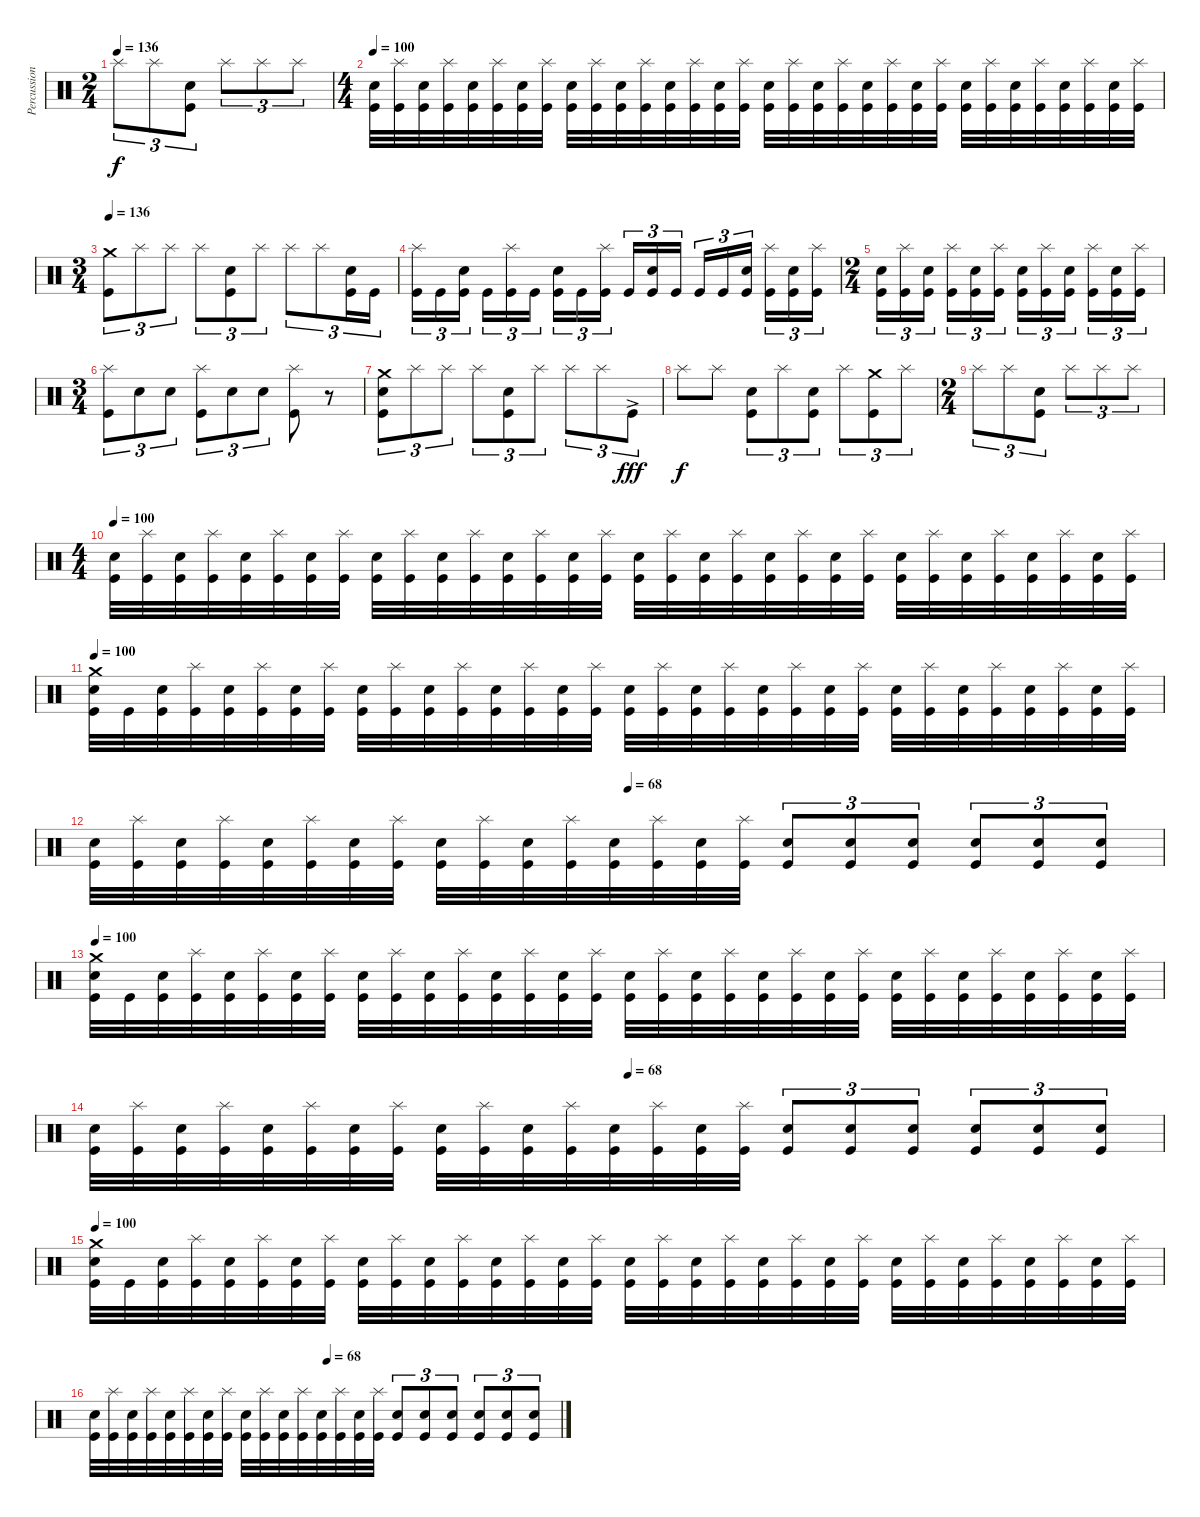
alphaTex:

\track ("Percussion" "Percussion") {instrument percussion}
\staff {score}
\articulation defaults
\ts (2 4)
\tempo 136
\clef neutral
\ks c "Splash (hit)".8{tu (3 2) dy f} "Splash (hit)".8{tu (3 2)}
("Electric Snare (hit)" "Kick (hit)").8{tu (3 2)} "Splash (hit)".8{tu (3 2)} "Splash (hit)".8{tu (3 2)} "Splash (hit)".8{tu (3 2)} |
\ts (4 4)
\tempo 100
("Electric Snare (hit)" "Kick (hit)").32 ("Splash (hit)" "Kick (hit)").32 ("Electric Snare (hit)" "Kick (hit)").32 ("Splash (hit)" "Kick (hit)").32 ("Electric Snare (hit)" "Kick (hit)").32 ("Splash (hit)" "Kick (hit)").32 ("Electric Snare (hit)" "Kick (hit)").32 ("Splash (hit)" "Kick (hit)").32 ("Electric Snare (hit)" "Kick (hit)").32 ("Splash (hit)" "Kick (hit)").32 ("Electric Snare (hit)" "Kick (hit)").32 ("Splash (hit)" "Kick (hit)").32 ("Electric Snare (hit)" "Kick (hit)").32 ("Splash (hit)" "Kick (hit)").32 ("Electric Snare (hit)" "Kick (hit)").32 ("Splash (hit)" "Kick (hit)").32 ("Electric Snare (hit)" "Kick (hit)").32 ("Splash (hit)" "Kick (hit)").32 ("Electric Snare (hit)" "Kick (hit)").32 ("Splash (hit)" "Kick (hit)").32 ("Electric Snare (hit)" "Kick (hit)").32 ("Splash (hit)" "Kick (hit)").32 ("Electric Snare (hit)" "Kick (hit)").32 ("Splash (hit)" "Kick (hit)").32 ("Electric Snare (hit)" "Kick (hit)").32 ("Splash (hit)" "Kick (hit)").32 ("Electric Snare (hit)" "Kick (hit)").32 ("Splash (hit)" "Kick (hit)").32 ("Electric Snare (hit)" "Kick (hit)").32 ("Splash (hit)" "Kick (hit)").32 ("Electric Snare (hit)" "Kick (hit)").32 ("Splash (hit)" "Kick (hit)").32 |
\ts (3 4)
\tempo 136
("Crash medium (hit)" "Kick (hit)").8{tu (3 2)} "Splash (hit)".8{tu (3 2)} "Splash (hit)".8{tu (3 2)} "Splash (hit)".8{tu (3 2)} ("Electric Snare (hit)" "Kick (hit)").8{tu (3 2)} "Splash (hit)".8{tu (3 2)} "Splash (hit)".8{tu (3 2)} "Splash (hit)".8{tu (3 2)} ("Electric Snare (hit)" "Kick (hit)").16{tu (3 2)} "Kick (hit)".16{tu (3 2)} |
("Splash (hit)" "Kick (hit)").16{tu (3 2)} "Kick (hit)".16{tu (3 2)} ("Electric Snare (hit)" "Kick (hit)").16{tu (3 2)} "Kick (hit)".16{tu (3 2)} ("Splash (hit)" "Kick (hit)").16{tu (3 2)} "Kick (hit)".16{tu (3 2)} ("Electric Snare (hit)" "Kick (hit)").16{tu (3 2)} "Kick (hit)".16{tu (3 2)} ("Splash (hit)" "Kick (hit)").16{tu (3 2)} "Kick (hit)".16{tu (3 2)} ("Electric Snare (hit)" "Kick (hit)").16{tu (3 2)} "Kick (hit)".16{tu (3 2)} "Kick (hit)".16{tu (3 2)} "Kick (hit)".16{tu (3 2)} ("Electric Snare (hit)" "Kick (hit)").16{tu (3 2)} ("Splash (hit)" "Kick (hit)").16{tu (3 2)} ("Electric Snare (hit)" "Kick (hit)").16{tu (3 2)} ("Splash (hit)" "Kick (hit)").16{tu (3 2)} |
\ts (2 4)
("Electric Snare (hit)" "Kick (hit)").16{tu (3 2)} ("Splash (hit)" "Kick (hit)").16{tu (3 2)} ("Electric Snare (hit)" "Kick (hit)").16{tu (3 2)} ("Splash (hit)" "Kick (hit)").16{tu (3 2)} ("Electric Snare (hit)" "Kick (hit)").16{tu (3 2)} ("Splash (hit)" "Kick (hit)").16{tu (3 2)} ("Electric Snare (hit)" "Kick (hit)").16{tu (3 2)} ("Splash (hit)" "Kick (hit)").16{tu (3 2)} ("Electric Snare (hit)" "Kick (hit)").16{tu (3 2)} ("Splash (hit)" "Kick (hit)").16{tu (3 2)} ("Electric Snare (hit)" "Kick (hit)").16{tu (3 2)} ("Splash (hit)" "Kick (hit)").16{tu (3 2)} |
\ts (3 4)
("Splash (hit)" "Kick (hit)").8{tu (3 2)} "Electric Snare (hit)".8{tu (3 2)} "Electric Snare (hit)".8{tu (3 2)} ("Splash (hit)" "Kick (hit)").8{tu (3 2)} "Electric Snare (hit)".8{tu (3 2)} "Electric Snare (hit)".8{tu (3 2)} ("Splash (hit)" "Kick (hit)").8 r.8 |
("Crash medium (hit)" "Electric Snare (hit)" "Kick (hit)").8{tu (3 2)} "Splash (hit)".8{tu (3 2)} "Splash (hit)".8{tu (3 2)} "Splash (hit)".8{tu (3 2)} ("Electric Snare (hit)" "Kick (hit)").8{tu (3 2)} "Splash (hit)".8{tu (3 2)} "Splash (hit)".8{tu (3 2)} "Splash (hit)".8{tu (3 2)} "Kick (hit)"{ac}.8{tu (3 2) dy fff} |
"Splash (hit)".8{dy f} "Splash (hit)".8 ("Electric Snare (hit)" "Kick (hit)").8{tu (3 2)} "Splash (hit)".8{tu (3 2)} ("Electric Snare (hit)" "Kick (hit)").8{tu (3 2)} "Splash (hit)".8{tu (3 2)} ("Crash medium (hit)" "Kick (hit)").8{tu (3 2)} "Splash (hit)".8{tu (3 2)} |
\ts (2 4)
"Splash (hit)".8{tu (3 2)} "Splash (hit)".8{tu (3 2)} ("Electric Snare (hit)" "Kick (hit)").8{tu (3 2)} "Splash (hit)".8{tu (3 2)} "Splash (hit)".8{tu (3 2)} "Splash (hit)".8{tu (3 2)} |
\ts (4 4)
\tempo 100
("Electric Snare (hit)" "Kick (hit)").32 ("Splash (hit)" "Kick (hit)").32 ("Electric Snare (hit)" "Kick (hit)").32 ("Splash (hit)" "Kick (hit)").32 ("Electric Snare (hit)" "Kick (hit)").32 ("Splash (hit)" "Kick (hit)").32 ("Electric Snare (hit)" "Kick (hit)").32 ("Splash (hit)" "Kick (hit)").32 ("Electric Snare (hit)" "Kick (hit)").32 ("Splash (hit)" "Kick (hit)").32 ("Electric Snare (hit)" "Kick (hit)").32 ("Splash (hit)" "Kick (hit)").32 ("Electric Snare (hit)" "Kick (hit)").32 ("Splash (hit)" "Kick (hit)").32 ("Electric Snare (hit)" "Kick (hit)").32 ("Splash (hit)" "Kick (hit)").32 ("Electric Snare (hit)" "Kick (hit)").32 ("Splash (hit)" "Kick (hit)").32 ("Electric Snare (hit)" "Kick (hit)").32 ("Splash (hit)" "Kick (hit)").32 ("Electric Snare (hit)" "Kick (hit)").32 ("Splash (hit)" "Kick (hit)").32 ("Electric Snare (hit)" "Kick (hit)").32 ("Splash (hit)" "Kick (hit)").32 ("Electric Snare (hit)" "Kick (hit)").32 ("Splash (hit)" "Kick (hit)").32 ("Electric Snare (hit)" "Kick (hit)").32 ("Splash (hit)" "Kick (hit)").32 ("Electric Snare (hit)" "Kick (hit)").32 ("Splash (hit)" "Kick (hit)").32 ("Electric Snare (hit)" "Kick (hit)").32 ("Splash (hit)" "Kick (hit)").32 |
\tempo 100
("Crash medium (hit)" "Electric Snare (hit)" "Kick (hit)").32 "Kick (hit)".32 ("Electric Snare (hit)" "Kick (hit)").32 ("Splash (hit)" "Kick (hit)").32 ("Electric Snare (hit)" "Kick (hit)").32 ("Splash (hit)" "Kick (hit)").32 ("Electric Snare (hit)" "Kick (hit)").32 ("Splash (hit)" "Kick (hit)").32 ("Electric Snare (hit)" "Kick (hit)").32 ("Splash (hit)" "Kick (hit)").32 ("Electric Snare (hit)" "Kick (hit)").32 ("Splash (hit)" "Kick (hit)").32 ("Electric Snare (hit)" "Kick (hit)").32 ("Splash (hit)" "Kick (hit)").32 ("Electric Snare (hit)" "Kick (hit)").32 ("Splash (hit)" "Kick (hit)").32 ("Electric Snare (hit)" "Kick (hit)").32 ("Splash (hit)" "Kick (hit)").32 ("Electric Snare (hit)" "Kick (hit)").32 ("Splash (hit)" "Kick (hit)").32 ("Electric Snare (hit)" "Kick (hit)").32 ("Splash (hit)" "Kick (hit)").32 ("Electric Snare (hit)" "Kick (hit)").32 ("Splash (hit)" "Kick (hit)").32 ("Electric Snare (hit)" "Kick (hit)").32 ("Splash (hit)" "Kick (hit)").32 ("Electric Snare (hit)" "Kick (hit)").32 ("Splash (hit)" "Kick (hit)").32 ("Electric Snare (hit)" "Kick (hit)").32 ("Splash (hit)" "Kick (hit)").32 ("Electric Snare (hit)" "Kick (hit)").32 ("Splash (hit)" "Kick (hit)").32 |
\tempo (68 0.5)
("Electric Snare (hit)" "Kick (hit)").32 ("Splash (hit)" "Kick (hit)").32 ("Electric Snare (hit)" "Kick (hit)").32 ("Splash (hit)" "Kick (hit)").32 ("Electric Snare (hit)" "Kick (hit)").32 ("Splash (hit)" "Kick (hit)").32 ("Electric Snare (hit)" "Kick (hit)").32 ("Splash (hit)" "Kick (hit)").32 ("Electric Snare (hit)" "Kick (hit)").32 ("Splash (hit)" "Kick (hit)").32 ("Electric Snare (hit)" "Kick (hit)").32 ("Splash (hit)" "Kick (hit)").32 ("Electric Snare (hit)" "Kick (hit)").32 ("Splash (hit)" "Kick (hit)").32 ("Electric Snare (hit)" "Kick (hit)").32 ("Splash (hit)" "Kick (hit)").32 ("Electric Snare (hit)" "Kick (hit)").8{tu (3 2)} ("Electric Snare (hit)" "Kick (hit)").8{tu (3 2)} ("Electric Snare (hit)" "Kick (hit)").8{tu (3 2)} ("Electric Snare (hit)" "Kick (hit)").8{tu (3 2)} ("Electric Snare (hit)" "Kick (hit)").8{tu (3 2)} ("Electric Snare (hit)" "Kick (hit)").8{tu (3 2)} |
\tempo 100
("Crash medium (hit)" "Electric Snare (hit)" "Kick (hit)").32 "Kick (hit)".32 ("Electric Snare (hit)" "Kick (hit)").32 ("Splash (hit)" "Kick (hit)").32 ("Electric Snare (hit)" "Kick (hit)").32 ("Splash (hit)" "Kick (hit)").32 ("Electric Snare (hit)" "Kick (hit)").32 ("Splash (hit)" "Kick (hit)").32 ("Electric Snare (hit)" "Kick (hit)").32 ("Splash (hit)" "Kick (hit)").32 ("Electric Snare (hit)" "Kick (hit)").32 ("Splash (hit)" "Kick (hit)").32 ("Electric Snare (hit)" "Kick (hit)").32 ("Splash (hit)" "Kick (hit)").32 ("Electric Snare (hit)" "Kick (hit)").32 ("Splash (hit)" "Kick (hit)").32 ("Electric Snare (hit)" "Kick (hit)").32 ("Splash (hit)" "Kick (hit)").32 ("Electric Snare (hit)" "Kick (hit)").32 ("Splash (hit)" "Kick (hit)").32 ("Electric Snare (hit)" "Kick (hit)").32 ("Splash (hit)" "Kick (hit)").32 ("Electric Snare (hit)" "Kick (hit)").32 ("Splash (hit)" "Kick (hit)").32 ("Electric Snare (hit)" "Kick (hit)").32 ("Splash (hit)" "Kick (hit)").32 ("Electric Snare (hit)" "Kick (hit)").32 ("Splash (hit)" "Kick (hit)").32 ("Electric Snare (hit)" "Kick (hit)").32 ("Splash (hit)" "Kick (hit)").32 ("Electric Snare (hit)" "Kick (hit)").32 ("Splash (hit)" "Kick (hit)").32 |
\tempo (68 0.5)
("Electric Snare (hit)" "Kick (hit)").32 ("Splash (hit)" "Kick (hit)").32 ("Electric Snare (hit)" "Kick (hit)").32 ("Splash (hit)" "Kick (hit)").32 ("Electric Snare (hit)" "Kick (hit)").32 ("Splash (hit)" "Kick (hit)").32 ("Electric Snare (hit)" "Kick (hit)").32 ("Splash (hit)" "Kick (hit)").32 ("Electric Snare (hit)" "Kick (hit)").32 ("Splash (hit)" "Kick (hit)").32 ("Electric Snare (hit)" "Kick (hit)").32 ("Splash (hit)" "Kick (hit)").32 ("Electric Snare (hit)" "Kick (hit)").32 ("Splash (hit)" "Kick (hit)").32 ("Electric Snare (hit)" "Kick (hit)").32 ("Splash (hit)" "Kick (hit)").32 ("Electric Snare (hit)" "Kick (hit)").8{tu (3 2)} ("Electric Snare (hit)" "Kick (hit)").8{tu (3 2)} ("Electric Snare (hit)" "Kick (hit)").8{tu (3 2)} ("Electric Snare (hit)" "Kick (hit)").8{tu (3 2)} ("Electric Snare (hit)" "Kick (hit)").8{tu (3 2)} ("Electric Snare (hit)" "Kick (hit)").8{tu (3 2)} |
\tempo 100
("Crash medium (hit)" "Electric Snare (hit)" "Kick (hit)").32 "Kick (hit)".32 ("Electric Snare (hit)" "Kick (hit)").32 ("Splash (hit)" "Kick (hit)").32 ("Electric Snare (hit)" "Kick (hit)").32 ("Splash (hit)" "Kick (hit)").32 ("Electric Snare (hit)" "Kick (hit)").32 ("Splash (hit)" "Kick (hit)").32 ("Electric Snare (hit)" "Kick (hit)").32 ("Splash (hit)" "Kick (hit)").32 ("Electric Snare (hit)" "Kick (hit)").32 ("Splash (hit)" "Kick (hit)").32 ("Electric Snare (hit)" "Kick (hit)").32 ("Splash (hit)" "Kick (hit)").32 ("Electric Snare (hit)" "Kick (hit)").32 ("Splash (hit)" "Kick (hit)").32 ("Electric Snare (hit)" "Kick (hit)").32 ("Splash (hit)" "Kick (hit)").32 ("Electric Snare (hit)" "Kick (hit)").32 ("Splash (hit)" "Kick (hit)").32 ("Electric Snare (hit)" "Kick (hit)").32 ("Splash (hit)" "Kick (hit)").32 ("Electric Snare (hit)" "Kick (hit)").32 ("Splash (hit)" "Kick (hit)").32 ("Electric Snare (hit)" "Kick (hit)").32 ("Splash (hit)" "Kick (hit)").32 ("Electric Snare (hit)" "Kick (hit)").32 ("Splash (hit)" "Kick (hit)").32 ("Electric Snare (hit)" "Kick (hit)").32 ("Splash (hit)" "Kick (hit)").32 ("Electric Snare (hit)" "Kick (hit)").32 ("Splash (hit)" "Kick (hit)").32 |
\tempo (68 0.5)
("Electric Snare (hit)" "Kick (hit)").32 ("Splash (hit)" "Kick (hit)").32 ("Electric Snare (hit)" "Kick (hit)").32 ("Splash (hit)" "Kick (hit)").32 ("Electric Snare (hit)" "Kick (hit)").32 ("Splash (hit)" "Kick (hit)").32 ("Electric Snare (hit)" "Kick (hit)").32 ("Splash (hit)" "Kick (hit)").32 ("Electric Snare (hit)" "Kick (hit)").32 ("Splash (hit)" "Kick (hit)").32 ("Electric Snare (hit)" "Kick (hit)").32 ("Splash (hit)" "Kick (hit)").32 ("Electric Snare (hit)" "Kick (hit)").32 ("Splash (hit)" "Kick (hit)").32 ("Electric Snare (hit)" "Kick (hit)").32 ("Splash (hit)" "Kick (hit)").32 ("Electric Snare (hit)" "Kick (hit)").8{tu (3 2)} ("Electric Snare (hit)" "Kick (hit)").8{tu (3 2)} ("Electric Snare (hit)" "Kick (hit)").8{tu (3 2)} ("Electric Snare (hit)" "Kick (hit)").8{tu (3 2)} ("Electric Snare (hit)" "Kick (hit)").8{tu (3 2)} ("Electric Snare (hit)" "Kick (hit)").8{tu (3 2)}
